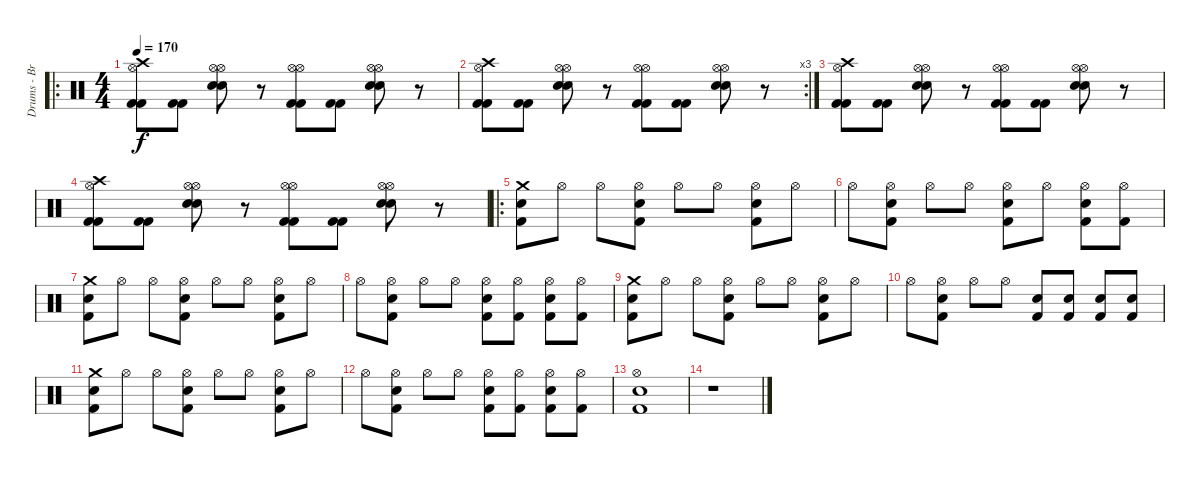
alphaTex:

\track ("Drums - Branden Steineckert" "Drums - Br") {instrument percussion}
\staff {score}
\articulation defaults
\ro
\ts (4 4)
\tempo 170
\clef neutral
\ks c
("Hi-Hat (open)" "Crash high (hit)" "Kick (hit) 2" "Kick (hit) 2").8{dy f} ("Kick (hit) 2" "Kick (hit) 2").8 ("Hi-Hat (open)" "Hi-Hat (open)" "Electric Snare (hit)" "Electric Snare (hit)").8 r.8 ("Hi-Hat (open)" "Hi-Hat (open)" "Kick (hit) 2" "Kick (hit) 2").8 ("Kick (hit) 2" "Kick (hit) 2").8 ("Hi-Hat (open)" "Hi-Hat (open)" "Electric Snare (hit)" "Electric Snare (hit)").8 r.8 |
\rc 3
("Hi-Hat (open)" "Crash high (hit)" "Kick (hit) 2" "Kick (hit) 2").8 ("Kick (hit) 2" "Kick (hit) 2").8 ("Hi-Hat (open)" "Hi-Hat (open)" "Electric Snare (hit)" "Electric Snare (hit)").8 r.8 ("Hi-Hat (open)" "Hi-Hat (open)" "Kick (hit) 2" "Kick (hit) 2").8 ("Kick (hit) 2" "Kick (hit) 2").8 ("Hi-Hat (open)" "Hi-Hat (open)" "Electric Snare (hit)" "Electric Snare (hit)").8 r.8 |
("Hi-Hat (open)" "Crash high (hit)" "Kick (hit) 2" "Kick (hit) 2").8 ("Kick (hit) 2" "Kick (hit) 2").8 ("Hi-Hat (open)" "Hi-Hat (open)" "Electric Snare (hit)" "Electric Snare (hit)").8 r.8 ("Hi-Hat (open)" "Hi-Hat (open)" "Kick (hit) 2" "Kick (hit) 2").8 ("Kick (hit) 2" "Kick (hit) 2").8 ("Hi-Hat (open)" "Hi-Hat (open)" "Electric Snare (hit)" "Electric Snare (hit)").8 r.8 |
("Hi-Hat (open)" "Crash high (hit)" "Kick (hit) 2" "Kick (hit) 2").8 ("Kick (hit) 2" "Kick (hit) 2").8 ("Hi-Hat (open)" "Hi-Hat (open)" "Electric Snare (hit)" "Electric Snare (hit)").8 r.8 ("Hi-Hat (open)" "Hi-Hat (open)" "Kick (hit) 2" "Kick (hit) 2").8 ("Kick (hit) 2" "Kick (hit) 2").8 ("Hi-Hat (open)" "Hi-Hat (open)" "Electric Snare (hit)" "Electric Snare (hit)").8 r.8 |
\ro
("Crash medium (hit)" "Electric Snare (hit)" "Kick (hit) 2").8 "Hi-Hat (open)".8 "Hi-Hat (open)".8 ("Hi-Hat (open)" "Electric Snare (hit)" "Kick (hit) 2").8 "Hi-Hat (open)".8 "Hi-Hat (open)".8 ("Hi-Hat (open)" "Electric Snare (hit)" "Kick (hit) 2").8 "Hi-Hat (open)".8 |
"Hi-Hat (open)".8 ("Hi-Hat (open)" "Electric Snare (hit)" "Kick (hit) 2").8 "Hi-Hat (open)".8 "Hi-Hat (open)".8 ("Hi-Hat (open)" "Electric Snare (hit)" "Kick (hit) 2").8 "Hi-Hat (open)".8 ("Hi-Hat (open)" "Electric Snare (hit)" "Kick (hit) 2").8 ("Hi-Hat (open)" "Kick (hit) 2").8 |
("Crash medium (hit)" "Electric Snare (hit)" "Kick (hit) 2").8 "Hi-Hat (open)".8 "Hi-Hat (open)".8 ("Hi-Hat (open)" "Electric Snare (hit)" "Kick (hit) 2").8 "Hi-Hat (open)".8 "Hi-Hat (open)".8 ("Hi-Hat (open)" "Electric Snare (hit)" "Kick (hit) 2").8 "Hi-Hat (open)".8 |
"Hi-Hat (open)".8 ("Hi-Hat (open)" "Electric Snare (hit)" "Kick (hit) 2").8 "Hi-Hat (open)".8 "Hi-Hat (open)".8 ("Hi-Hat (open)" "Electric Snare (hit)" "Kick (hit) 2").8 ("Hi-Hat (open)" "Kick (hit) 2").8 ("Hi-Hat (open)" "Electric Snare (hit)" "Kick (hit) 2").8 ("Hi-Hat (open)" "Kick (hit) 2").8 |
("Crash medium (hit)" "Electric Snare (hit)" "Kick (hit) 2").8 "Hi-Hat (open)".8 "Hi-Hat (open)".8 ("Hi-Hat (open)" "Electric Snare (hit)" "Kick (hit) 2").8 "Hi-Hat (open)".8 "Hi-Hat (open)".8 ("Hi-Hat (open)" "Electric Snare (hit)" "Kick (hit) 2").8 "Hi-Hat (open)".8 |
"Hi-Hat (open)".8 ("Hi-Hat (open)" "Electric Snare (hit)" "Kick (hit) 2").8 "Hi-Hat (open)".8 "Hi-Hat (open)".8 ("Electric Snare (hit)" "Kick (hit) 2").8 ("Electric Snare (hit)" "Kick (hit) 2").8 ("Electric Snare (hit)" "Kick (hit) 2").8 ("Electric Snare (hit)" "Kick (hit) 2").8 |
("Crash medium (hit)" "Electric Snare (hit)" "Kick (hit) 2").8 "Hi-Hat (open)".8 "Hi-Hat (open)".8 ("Hi-Hat (open)" "Electric Snare (hit)" "Kick (hit) 2").8 "Hi-Hat (open)".8 "Hi-Hat (open)".8 ("Hi-Hat (open)" "Electric Snare (hit)" "Kick (hit) 2").8 "Hi-Hat (open)".8 |
"Hi-Hat (open)".8 ("Hi-Hat (open)" "Electric Snare (hit)" "Kick (hit) 2").8 "Hi-Hat (open)".8 "Hi-Hat (open)".8 ("Hi-Hat (open)" "Electric Snare (hit)" "Kick (hit) 2").8 ("Hi-Hat (open)" "Kick (hit) 2").8 ("Hi-Hat (open)" "Electric Snare (hit)" "Kick (hit) 2").8 ("Hi-Hat (open)" "Kick (hit) 2").8 |
("Hi-Hat (open)" "Electric Snare (hit)" "Kick (hit) 2").1 |
r.1
